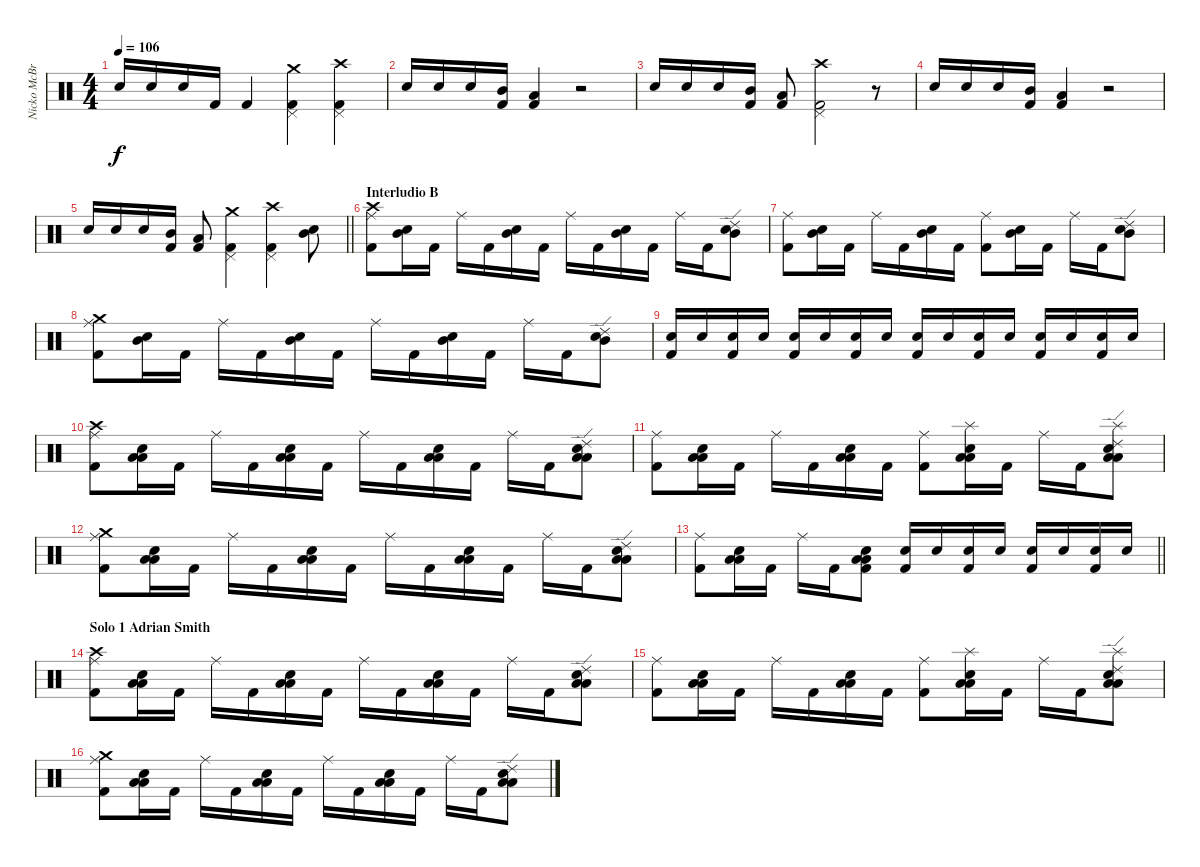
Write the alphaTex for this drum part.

\track ("Nicko McBrain" "Nicko McBr") {instrument percussion}
\staff {score}
\articulation defaults
\ts (4 4)
\tempo 106
\clef neutral
\ks c "Snare (hit) 2".16{dy f} "Snare (hit) 2".16 "Snare (hit) 2".16 "Kick (hit) 2".16 "Kick (hit) 2".4
("Pedal Hi-Hat (hit)" "Crash medium (hit)" "Kick (hit) 2").4 ("Pedal Hi-Hat (hit)" "Crash high (hit)" "Kick (hit) 2").4 |
"Snare (hit) 2".16 "Snare (hit) 2".16 "Snare (hit) 2".16 ("Mid Tom (hit)" "Kick (hit) 2").16 ("Low Tom (hit)" "Kick (hit) 2").4 r.2 |
"Snare (hit) 2".16 "Snare (hit) 2".16 "Snare (hit) 2".16 ("Mid Tom (hit)" "Kick (hit) 2").16 ("Low Tom (hit)" "Kick (hit) 2").8 ("Pedal Hi-Hat (hit)" "Crash high (hit)" "Kick (hit) 2").2 r.8 |
"Snare (hit) 2".16 "Snare (hit) 2".16 "Snare (hit) 2".16 ("Mid Tom (hit)" "Kick (hit) 2").16 ("Low Tom (hit)" "Kick (hit) 2").4 r.2 |
\barLineRight lightlight "Snare (hit) 2".16 "Snare (hit) 2".16 "Snare (hit) 2".16
("Mid Tom (hit)" "Kick (hit) 2").16 ("Low Tom (hit)" "Kick (hit) 2").8 ("Pedal Hi-Hat (hit)" "Crash medium (hit)" "Kick (hit) 2").4 ("Pedal Hi-Hat (hit)" "Crash high (hit)" "Kick (hit) 2").4 ("Electric Snare (hit)" "Mid Tom (hit)").8 |
\section ("" "Interludio B")
("Ride (middle)" "Crash high (hit)" "Kick (hit) 2").8 ("Electric Snare (hit)" "Mid Tom (hit)").16 "Kick (hit) 2".16 "Ride (middle)".16 "Kick (hit) 2".16 ("Electric Snare (hit)" "Mid Tom (hit)").16 "Kick (hit) 2".16 "Ride (middle)".16 "Kick (hit) 2".16 ("Electric Snare (hit)" "Mid Tom (hit)").16 "Kick (hit) 2".16 "Ride (middle)".16 "Kick (hit) 2".16 ("Ride (edge) 2" "Electric Snare (hit)" "Mid Tom (hit)").8 |
("Ride (middle)" "Kick (hit) 2").8 ("Electric Snare (hit)" "Mid Tom (hit)").16 "Kick (hit) 2".16 "Ride (middle)".16 "Kick (hit) 2".16 ("Electric Snare (hit)" "Mid Tom (hit)").16 "Kick (hit) 2".16 ("Ride (middle)" "Kick (hit) 2").8 ("Electric Snare (hit)" "Mid Tom (hit)").16 "Kick (hit) 2".16 "Ride (middle)".16 "Kick (hit) 2".16 ("Ride (edge) 2" "Electric Snare (hit)" "Mid Tom (hit)").8 |
("Ride (middle)" "Crash medium (hit)" "Kick (hit) 2").8 ("Electric Snare (hit)" "Mid Tom (hit)").16 "Kick (hit) 2".16 "Ride (middle)".16 "Kick (hit) 2".16 ("Electric Snare (hit)" "Mid Tom (hit)").16 "Kick (hit) 2".16 "Ride (middle)".16 "Kick (hit) 2".16 ("Electric Snare (hit)" "Mid Tom (hit)").16 "Kick (hit) 2".16 "Ride (middle)".16 "Kick (hit) 2".16 ("Ride (edge) 2" "Electric Snare (hit)" "Mid Tom (hit)").8 |
("Electric Snare (hit)" "Kick (hit) 2").16 "Electric Snare (hit)".16 ("Electric Snare (hit)" "Kick (hit) 2").16 "Electric Snare (hit)".16 ("Electric Snare (hit)" "Kick (hit) 2").16 "Electric Snare (hit)".16 ("Electric Snare (hit)" "Kick (hit) 2").16 "Electric Snare (hit)".16 ("Electric Snare (hit)" "Kick (hit) 2").16 "Electric Snare (hit)".16 ("Electric Snare (hit)" "Kick (hit) 2").16 "Electric Snare (hit)".16 ("Electric Snare (hit)" "Kick (hit) 2").16 "Electric Snare (hit)".16 ("Electric Snare (hit)" "Kick (hit) 2").16 "Electric Snare (hit)".16 |
("Ride (middle)" "Crash high (hit)" "Kick (hit) 2").8 ("Electric Snare (hit)" "Low Tom (hit)" "Low Floor Tom (hit)").16 "Kick (hit) 2".16 "Ride (middle)".16 "Kick (hit) 2".16 ("Electric Snare (hit)" "Low Tom (hit)" "Low Floor Tom (hit)").16 "Kick (hit) 2".16 "Ride (middle)".16 "Kick (hit) 2".16 ("Electric Snare (hit)" "Low Tom (hit)" "Low Floor Tom (hit)").16 "Kick (hit) 2".16 "Ride (middle)".16 "Kick (hit) 2".16 ("Ride (edge) 2" "Electric Snare (hit)" "Low Tom (hit)" "Low Floor Tom (hit)").8 |
("Ride (middle)" "Kick (hit) 2").8 ("Electric Snare (hit)" "Low Tom (hit)" "Low Floor Tom (hit)").16 "Kick (hit) 2".16 "Ride (middle)".16 "Kick (hit) 2".16 ("Electric Snare (hit)" "Low Tom (hit)" "Low Floor Tom (hit)").16 "Kick (hit) 2".16 ("Ride (middle)" "Kick (hit) 2").8 ("Electric Snare (hit)" "Low Tom (hit)" "Low Floor Tom (hit)" "Splash (hit)").16 "Kick (hit) 2".16 "Ride (middle)".16 "Kick (hit) 2".16 ("Ride (edge) 2" "Electric Snare (hit)" "Low Tom (hit)" "Low Floor Tom (hit)" "Splash (hit)").8 |
("Ride (middle)" "Crash medium (hit)" "Kick (hit) 2").8 ("Electric Snare (hit)" "Low Tom (hit)" "Low Floor Tom (hit)").16 "Kick (hit) 2".16 "Ride (middle)".16 "Kick (hit) 2".16 ("Electric Snare (hit)" "Low Tom (hit)" "Low Floor Tom (hit)").16 "Kick (hit) 2".16 "Ride (middle)".16 "Kick (hit) 2".16 ("Electric Snare (hit)" "Low Tom (hit)" "Low Floor Tom (hit)").16 "Kick (hit) 2".16 "Ride (middle)".16 "Kick (hit) 2".16 ("Ride (edge) 2" "Electric Snare (hit)" "Low Tom (hit)" "Low Floor Tom (hit)").8 |
\barLineRight lightlight
("Ride (middle)" "Kick (hit) 2").8 ("Electric Snare (hit)" "Low Tom (hit)" "Low Floor Tom (hit)").16 "Kick (hit) 2".16 "Ride (middle)".16 "Kick (hit) 2".16 ("Electric Snare (hit)" "Low Tom (hit)" "Low Floor Tom (hit)" "Kick (hit) 2").8 ("Electric Snare (hit)" "Kick (hit) 2").16 "Electric Snare (hit)".16 ("Electric Snare (hit)" "Kick (hit) 2").16 "Electric Snare (hit)".16 ("Electric Snare (hit)" "Kick (hit) 2").16 "Electric Snare (hit)".16 ("Electric Snare (hit)" "Kick (hit) 2").16 "Electric Snare (hit)".16 |
\section ("" "Solo 1 Adrian Smith")
("Ride (middle)" "Crash high (hit)" "Kick (hit) 2").8 ("Electric Snare (hit)" "Low Tom (hit)" "Low Floor Tom (hit)").16 "Kick (hit) 2".16 "Ride (middle)".16 "Kick (hit) 2".16 ("Electric Snare (hit)" "Low Tom (hit)" "Low Floor Tom (hit)").16 "Kick (hit) 2".16 "Ride (middle)".16 "Kick (hit) 2".16 ("Electric Snare (hit)" "Low Tom (hit)" "Low Floor Tom (hit)").16 "Kick (hit) 2".16 "Ride (middle)".16 "Kick (hit) 2".16 ("Ride (edge) 2" "Electric Snare (hit)" "Low Tom (hit)" "Low Floor Tom (hit)").8 |
("Ride (middle)" "Kick (hit) 2").8 ("Electric Snare (hit)" "Low Tom (hit)" "Low Floor Tom (hit)").16 "Kick (hit) 2".16 "Ride (middle)".16 "Kick (hit) 2".16 ("Electric Snare (hit)" "Low Tom (hit)" "Low Floor Tom (hit)").16 "Kick (hit) 2".16 ("Ride (middle)" "Kick (hit) 2").8 ("Electric Snare (hit)" "Low Tom (hit)" "Low Floor Tom (hit)" "Splash (hit)").16 "Kick (hit) 2".16 "Ride (middle)".16 "Kick (hit) 2".16 ("Ride (edge) 2" "Electric Snare (hit)" "Low Tom (hit)" "Low Floor Tom (hit)" "Splash (hit)").8 |
("Ride (middle)" "Crash medium (hit)" "Kick (hit) 2").8 ("Electric Snare (hit)" "Low Tom (hit)" "Low Floor Tom (hit)").16 "Kick (hit) 2".16 "Ride (middle)".16 "Kick (hit) 2".16 ("Electric Snare (hit)" "Low Tom (hit)" "Low Floor Tom (hit)").16 "Kick (hit) 2".16 "Ride (middle)".16 "Kick (hit) 2".16 ("Electric Snare (hit)" "Low Tom (hit)" "Low Floor Tom (hit)").16 "Kick (hit) 2".16 "Ride (middle)".16 "Kick (hit) 2".16 ("Ride (edge) 2" "Electric Snare (hit)" "Low Tom (hit)" "Low Floor Tom (hit)").8
